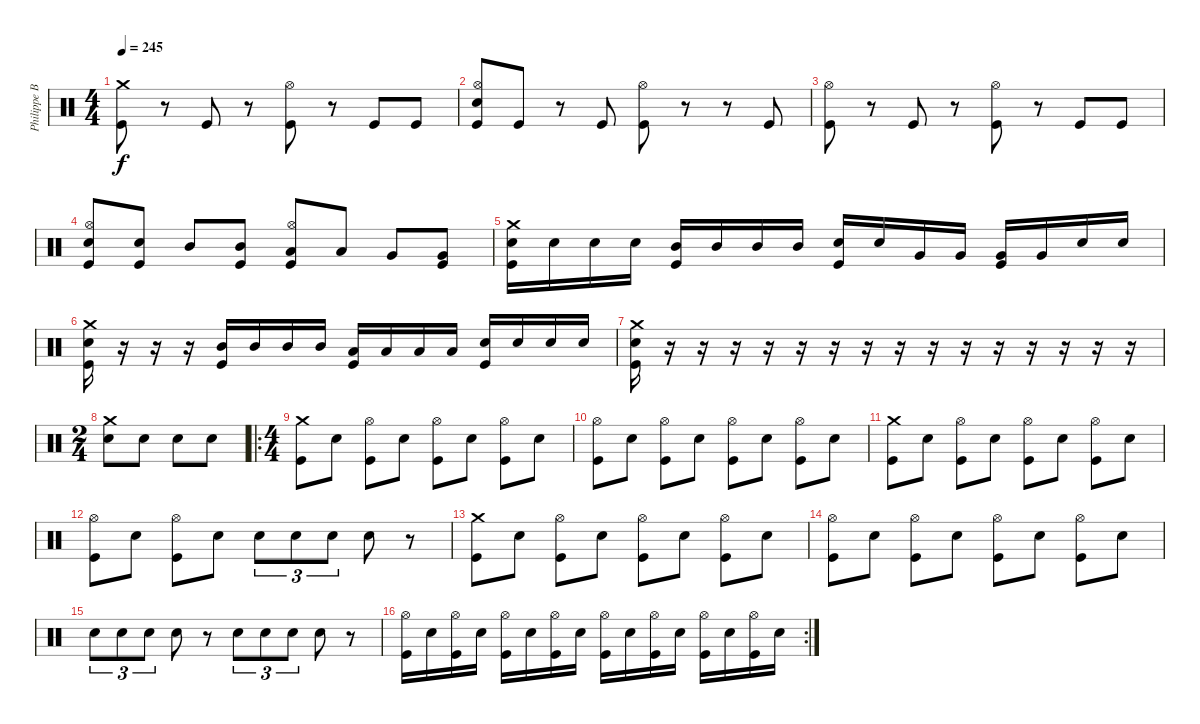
\track ("Philippe Boucher" "Philippe B") {instrument percussion}
\staff {score}
\articulation defaults
\ts (4 4)
\tempo 245
\clef neutral
\ks c
("Crash medium (hit)" "Kick (hit)").8{dy f} r.8 "Kick (hit)".8 r.8 ("Hi-Hat (open)" "Kick (hit)").8 r.8 "Kick (hit)".8 "Kick (hit)".8 |
("Hi-Hat (open)" "Electric Snare (hit)" "Kick (hit)").8 "Kick (hit)".8 r.8 "Kick (hit)".8 ("Hi-Hat (open)" "Kick (hit)").8 r.8 r.8 "Kick (hit)".8 |
("Hi-Hat (open)" "Kick (hit)").8 r.8 "Kick (hit)".8 r.8 ("Hi-Hat (open)" "Kick (hit)").8 r.8 "Kick (hit)".8 "Kick (hit)".8 |
("Hi-Hat (open)" "Electric Snare (hit)" "Kick (hit)").8 ("Electric Snare (hit)" "Kick (hit)").8 "Mid Tom (hit)".8 ("Mid Tom (hit)" "Kick (hit)").8 ("Hi-Hat (open)" "Low Tom (hit)" "Kick (hit)").8 "Low Tom (hit)".8 "Very Low Tom (hit)".8 ("Very Low Tom (hit)" "Kick (hit)").8 |
("Crash medium (hit)" "Electric Snare (hit)" "Kick (hit)").16 "Electric Snare (hit)".16 "Electric Snare (hit)".16 "Electric Snare (hit)".16 ("Mid Tom (hit)" "Kick (hit)").16 "Mid Tom (hit)".16 "Mid Tom (hit)".16 "Mid Tom (hit)".16 ("Electric Snare (hit)" "Kick (hit)").16 "Electric Snare (hit)".16 "Very Low Tom (hit)".16 "Very Low Tom (hit)".16 ("Very Low Tom (hit)" "Kick (hit)").16 "Very Low Tom (hit)".16 "Electric Snare (hit)".16 "Electric Snare (hit)".16 |
("Crash medium (hit)" "Electric Snare (hit)" "Kick (hit)").16 r.16 r.16 r.16 ("Mid Tom (hit)" "Kick (hit)").16 "Mid Tom (hit)".16 "Mid Tom (hit)".16 "Mid Tom (hit)".16 ("Low Tom (hit)" "Kick (hit)").16 "Low Tom (hit)".16 "Low Tom (hit)".16 "Low Tom (hit)".16 ("Electric Snare (hit)" "Kick (hit)").16 "Electric Snare (hit)".16 "Electric Snare (hit)".16 "Electric Snare (hit)".16 |
("Crash medium (hit)" "Electric Snare (hit)" "Kick (hit)").16 r.16 r.16 r.16 r.16 r.16 r.16 r.16 r.16 r.16 r.16 r.16 r.16 r.16 r.16 r.16 |
\ts (2 4)
("Crash medium (hit)" "Electric Snare (hit)").8 "Electric Snare (hit)".8 "Electric Snare (hit)".8 "Electric Snare (hit)".8 |
\ro
\ts (4 4)
("Crash medium (hit)" "Kick (hit)").8 "Electric Snare (hit)".8 ("Hi-Hat (open)" "Kick (hit)").8 "Electric Snare (hit)".8 ("Hi-Hat (open)" "Kick (hit)").8 "Electric Snare (hit)".8 ("Hi-Hat (open)" "Kick (hit)").8 "Electric Snare (hit)".8 |
("Hi-Hat (open)" "Kick (hit)").8 "Electric Snare (hit)".8 ("Hi-Hat (open)" "Kick (hit)").8 "Electric Snare (hit)".8 ("Hi-Hat (open)" "Kick (hit)").8 "Electric Snare (hit)".8 ("Hi-Hat (open)" "Kick (hit)").8 "Electric Snare (hit)".8 |
("Crash medium (hit)" "Kick (hit)").8 "Electric Snare (hit)".8 ("Hi-Hat (open)" "Kick (hit)").8 "Electric Snare (hit)".8 ("Hi-Hat (open)" "Kick (hit)").8 "Electric Snare (hit)".8 ("Hi-Hat (open)" "Kick (hit)").8 "Electric Snare (hit)".8 |
("Hi-Hat (open)" "Kick (hit)").8 "Electric Snare (hit)".8 ("Hi-Hat (open)" "Kick (hit)").8 "Electric Snare (hit)".8 "Electric Snare (hit)".8{tu (3 2)} "Electric Snare (hit)".8{tu (3 2)} "Electric Snare (hit)".8{tu (3 2)} "Electric Snare (hit)".8 r.8 |
("Crash medium (hit)" "Kick (hit)").8 "Electric Snare (hit)".8 ("Hi-Hat (open)" "Kick (hit)").8 "Electric Snare (hit)".8 ("Hi-Hat (open)" "Kick (hit)").8 "Electric Snare (hit)".8 ("Hi-Hat (open)" "Kick (hit)").8 "Electric Snare (hit)".8 |
("Hi-Hat (open)" "Kick (hit)").8 "Electric Snare (hit)".8 ("Hi-Hat (open)" "Kick (hit)").8 "Electric Snare (hit)".8 ("Hi-Hat (open)" "Kick (hit)").8 "Electric Snare (hit)".8 ("Hi-Hat (open)" "Kick (hit)").8 "Electric Snare (hit)".8 |
"Electric Snare (hit)".8{tu (3 2)} "Electric Snare (hit)".8{tu (3 2)} "Electric Snare (hit)".8{tu (3 2)} "Electric Snare (hit)".8 r.8 "Electric Snare (hit)".8{tu (3 2)} "Electric Snare (hit)".8{tu (3 2)} "Electric Snare (hit)".8{tu (3 2)} "Electric Snare (hit)".8 r.8 |
\rc 2
("Hi-Hat (open)" "Kick (hit)").16 "Electric Snare (hit)".16 ("Hi-Hat (open)" "Kick (hit)").16 "Electric Snare (hit)".16 ("Hi-Hat (open)" "Kick (hit)").16 "Electric Snare (hit)".16 ("Hi-Hat (open)" "Kick (hit)").16 "Electric Snare (hit)".16 ("Hi-Hat (open)" "Kick (hit)").16 "Electric Snare (hit)".16 ("Hi-Hat (open)" "Kick (hit)").16 "Electric Snare (hit)".16 ("Hi-Hat (open)" "Kick (hit)").16 "Electric Snare (hit)".16 ("Hi-Hat (open)" "Kick (hit)").16 "Electric Snare (hit)".16
